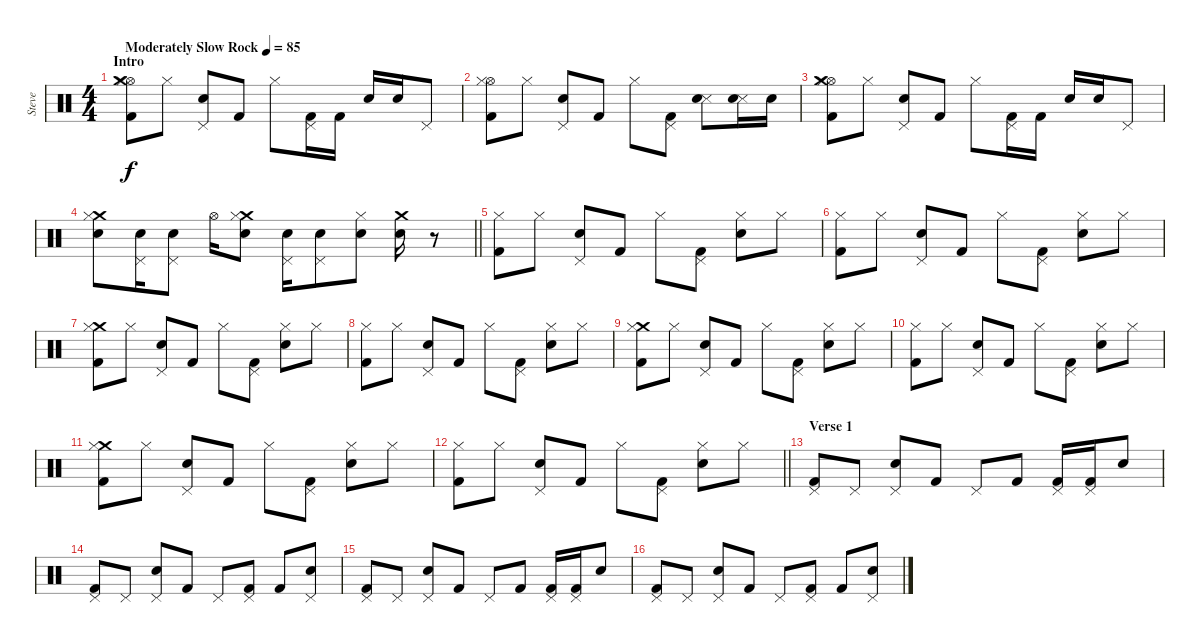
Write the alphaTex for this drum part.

\track ("Steve" "Steve") {instrument percussion}
\staff {score}
\articulation defaults
\ts (4 4)
\section ("" "Intro")
\tempo (85 "Moderately Slow Rock")
\clef neutral
\ks c
("Kick (hit) 2" "Hi-Hat (open)" "Hi-Hat (closed)" "Crash medium (hit)").8{dy f} "Hi-Hat (closed)".8 ("Electric Snare (hit)" "Pedal Hi-Hat (hit)").8 "Kick (hit) 2".8 "Hi-Hat (closed)".8 ("Kick (hit) 2" "Pedal Hi-Hat (hit)").16 "Kick (hit) 2".16 "Electric Snare (hit)".16 "Electric Snare (hit)".16 "Pedal Hi-Hat (hit)".8 |
("Kick (hit) 2" "Hi-Hat (open)" "Hi-Hat (closed)").8 "Hi-Hat (closed)".8 ("Electric Snare (hit)" "Pedal Hi-Hat (hit)").8 "Kick (hit) 2".8 "Hi-Hat (closed)".8 ("Kick (hit) 2" "Pedal Hi-Hat (hit)").8 ("Snare (side stick) 3" "Electric Snare (hit)").8 ("Snare (side stick) 3" "Electric Snare (hit)").16 "Electric Snare (hit)".16 |
("Kick (hit) 2" "Hi-Hat (open)" "Hi-Hat (closed)" "Crash medium (hit)").8 "Hi-Hat (closed)".8 ("Electric Snare (hit)" "Pedal Hi-Hat (hit)").8 "Kick (hit) 2".8 "Hi-Hat (closed)".8 ("Kick (hit) 2" "Pedal Hi-Hat (hit)").16 "Kick (hit) 2".16 "Electric Snare (hit)".16 "Electric Snare (hit)".16 "Pedal Hi-Hat (hit)".8 |
\barLineRight lightlight
("Crash medium (hit)" "Hi-Hat (closed)" "Electric Snare (hit)").8 ("Pedal Hi-Hat (hit)" "Electric Snare (hit)").16 ("Pedal Hi-Hat (hit)" "Electric Snare (hit)").8 "Hi-Hat (open)".16 ("Crash medium (hit)" "Hi-Hat (closed)" "Electric Snare (hit)").8 ("Pedal Hi-Hat (hit)" "Electric Snare (hit)").16 ("Pedal Hi-Hat (hit)" "Electric Snare (hit)").8 ("Hi-Hat (closed)" "Electric Snare (hit)").8 ("Crash medium (hit)" "Electric Snare (hit)").16 r.8 |
("Kick (hit) 2" "Hi-Hat (closed)").8 "Hi-Hat (closed)".8 ("Electric Snare (hit)" "Pedal Hi-Hat (hit)").8 "Kick (hit) 2".8 "Hi-Hat (closed)".8 ("Kick (hit) 2" "Pedal Hi-Hat (hit)").8 ("Electric Snare (hit)" "Hi-Hat (closed)").8 "Hi-Hat (closed)".8 |
("Kick (hit) 2" "Hi-Hat (closed)").8 "Hi-Hat (closed)".8 ("Electric Snare (hit)" "Pedal Hi-Hat (hit)").8 "Kick (hit) 2".8 "Hi-Hat (closed)".8 ("Kick (hit) 2" "Pedal Hi-Hat (hit)").8 ("Electric Snare (hit)" "Hi-Hat (closed)").8 "Hi-Hat (closed)".8 |
("Kick (hit) 2" "Crash medium (hit)" "Hi-Hat (closed)").8 "Hi-Hat (closed)".8 ("Electric Snare (hit)" "Pedal Hi-Hat (hit)").8 "Kick (hit) 2".8 "Hi-Hat (closed)".8 ("Kick (hit) 2" "Pedal Hi-Hat (hit)").8 ("Electric Snare (hit)" "Hi-Hat (closed)").8 "Hi-Hat (closed)".8 |
("Kick (hit) 2" "Hi-Hat (closed)").8 "Hi-Hat (closed)".8 ("Electric Snare (hit)" "Pedal Hi-Hat (hit)").8 "Kick (hit) 2".8 "Hi-Hat (closed)".8 ("Kick (hit) 2" "Pedal Hi-Hat (hit)").8 ("Electric Snare (hit)" "Hi-Hat (closed)").8 "Hi-Hat (closed)".8 |
("Kick (hit) 2" "Crash medium (hit)" "Hi-Hat (closed)").8 "Hi-Hat (closed)".8 ("Electric Snare (hit)" "Pedal Hi-Hat (hit)").8 "Kick (hit) 2".8 "Hi-Hat (closed)".8 ("Kick (hit) 2" "Pedal Hi-Hat (hit)").8 ("Electric Snare (hit)" "Hi-Hat (closed)").8 "Hi-Hat (closed)".8 |
("Kick (hit) 2" "Hi-Hat (closed)").8 "Hi-Hat (closed)".8 ("Electric Snare (hit)" "Pedal Hi-Hat (hit)").8 "Kick (hit) 2".8 "Hi-Hat (closed)".8 ("Kick (hit) 2" "Pedal Hi-Hat (hit)").8 ("Electric Snare (hit)" "Hi-Hat (closed)").8 "Hi-Hat (closed)".8 |
("Kick (hit) 2" "Crash medium (hit)" "Hi-Hat (closed)").8 "Hi-Hat (closed)".8 ("Electric Snare (hit)" "Pedal Hi-Hat (hit)").8 "Kick (hit) 2".8 "Hi-Hat (closed)".8 ("Kick (hit) 2" "Pedal Hi-Hat (hit)").8 ("Electric Snare (hit)" "Hi-Hat (closed)").8 "Hi-Hat (closed)".8 |
\barLineRight lightlight
("Kick (hit) 2" "Hi-Hat (closed)").8 "Hi-Hat (closed)".8 ("Electric Snare (hit)" "Pedal Hi-Hat (hit)").8 "Kick (hit) 2".8 "Hi-Hat (closed)".8 ("Kick (hit) 2" "Pedal Hi-Hat (hit)").8 ("Electric Snare (hit)" "Hi-Hat (closed)").8 "Hi-Hat (closed)".8 |
\section ("" "Verse 1")
("Kick (hit) 2" "Pedal Hi-Hat (hit)").8 "Pedal Hi-Hat (hit)".8 ("Electric Snare (hit)" "Pedal Hi-Hat (hit)").8 "Kick (hit) 2".8 "Pedal Hi-Hat (hit)".8 "Kick (hit) 2".8 ("Kick (hit) 2" "Pedal Hi-Hat (hit)").16 ("Kick (hit) 2" "Pedal Hi-Hat (hit)").16 "Electric Snare (hit)".8 |
("Kick (hit) 2" "Pedal Hi-Hat (hit)").8 "Pedal Hi-Hat (hit)".8 ("Electric Snare (hit)" "Pedal Hi-Hat (hit)").8 "Kick (hit) 2".8 "Pedal Hi-Hat (hit)".8 ("Kick (hit) 2" "Pedal Hi-Hat (hit)").8 "Kick (hit) 2".8 ("Electric Snare (hit)" "Pedal Hi-Hat (hit)").8 |
("Kick (hit) 2" "Pedal Hi-Hat (hit)").8 "Pedal Hi-Hat (hit)".8 ("Electric Snare (hit)" "Pedal Hi-Hat (hit)").8 "Kick (hit) 2".8 "Pedal Hi-Hat (hit)".8 "Kick (hit) 2".8 ("Kick (hit) 2" "Pedal Hi-Hat (hit)").16 ("Kick (hit) 2" "Pedal Hi-Hat (hit)").16 "Electric Snare (hit)".8 |
("Kick (hit) 2" "Pedal Hi-Hat (hit)").8 "Pedal Hi-Hat (hit)".8 ("Electric Snare (hit)" "Pedal Hi-Hat (hit)").8 "Kick (hit) 2".8 "Pedal Hi-Hat (hit)".8 ("Kick (hit) 2" "Pedal Hi-Hat (hit)").8 "Kick (hit) 2".8 ("Electric Snare (hit)" "Pedal Hi-Hat (hit)").8
